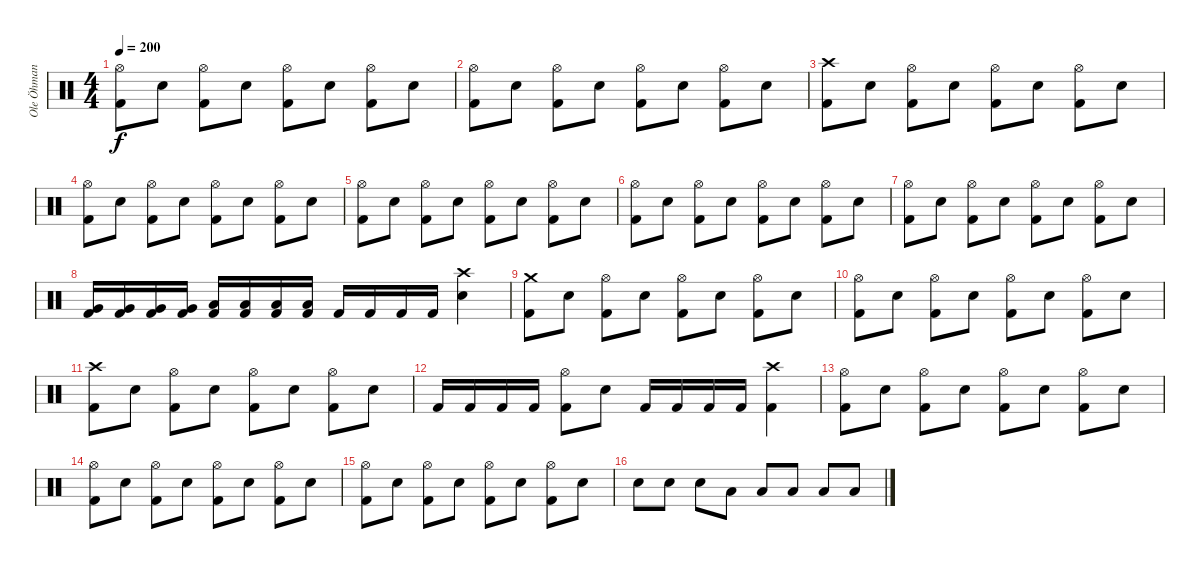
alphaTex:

\track ("Ole Öhman" "Ole Öhman") {instrument percussion}
\staff {score}
\articulation defaults
\ts (4 4)
\tempo 200
\clef neutral
\ks c
("Hi-Hat (open)" "Kick (hit) 2").8{dy f} "Snare (hit) 2".8 ("Hi-Hat (open)" "Kick (hit) 2").8 "Snare (hit) 2".8 ("Hi-Hat (open)" "Kick (hit) 2").8 "Snare (hit) 2".8 ("Hi-Hat (open)" "Kick (hit) 2").8 "Snare (hit) 2".8 |
("Hi-Hat (open)" "Kick (hit) 2").8 "Snare (hit) 2".8 ("Hi-Hat (open)" "Kick (hit) 2").8 "Snare (hit) 2".8 ("Hi-Hat (open)" "Kick (hit) 2").8 "Snare (hit) 2".8 ("Hi-Hat (open)" "Kick (hit) 2").8 "Snare (hit) 2".8 |
("Crash high (hit)" "Kick (hit) 2").8 "Snare (hit) 2".8 ("Hi-Hat (open)" "Kick (hit) 2").8 "Snare (hit) 2".8 ("Hi-Hat (open)" "Kick (hit) 2").8 "Snare (hit) 2".8 ("Hi-Hat (open)" "Kick (hit) 2").8 "Snare (hit) 2".8 |
("Hi-Hat (open)" "Kick (hit) 2").8 "Snare (hit) 2".8 ("Hi-Hat (open)" "Kick (hit) 2").8 "Snare (hit) 2".8 ("Hi-Hat (open)" "Kick (hit) 2").8 "Snare (hit) 2".8 ("Hi-Hat (open)" "Kick (hit) 2").8 "Snare (hit) 2".8 |
("Hi-Hat (open)" "Kick (hit) 2").8 "Snare (hit) 2".8 ("Hi-Hat (open)" "Kick (hit) 2").8 "Snare (hit) 2".8 ("Hi-Hat (open)" "Kick (hit) 2").8 "Snare (hit) 2".8 ("Hi-Hat (open)" "Kick (hit) 2").8 "Snare (hit) 2".8 |
("Hi-Hat (open)" "Kick (hit) 2").8 "Snare (hit) 2".8 ("Hi-Hat (open)" "Kick (hit) 2").8 "Snare (hit) 2".8 ("Hi-Hat (open)" "Kick (hit) 2").8 "Snare (hit) 2".8 ("Hi-Hat (open)" "Kick (hit) 2").8 "Snare (hit) 2".8 |
("Hi-Hat (open)" "Kick (hit) 2").8 "Snare (hit) 2".8 ("Hi-Hat (open)" "Kick (hit) 2").8 "Snare (hit) 2".8 ("Hi-Hat (open)" "Kick (hit) 2").8 "Snare (hit) 2".8 ("Hi-Hat (open)" "Kick (hit) 2").8 "Snare (hit) 2".8 |
("Very Low Tom (hit)" "Kick (hit) 2").16 ("Very Low Tom (hit)" "Kick (hit) 2").16 ("Very Low Tom (hit)" "Kick (hit) 2").16 ("Very Low Tom (hit)" "Kick (hit) 2").16 ("Low Floor Tom (hit)" "Kick (hit) 2").16 ("Low Floor Tom (hit)" "Kick (hit) 2").16 ("Low Floor Tom (hit)" "Kick (hit) 2").16 ("Low Floor Tom (hit)" "Kick (hit) 2").16 "Kick (hit) 2".16 "Kick (hit) 2".16 "Kick (hit) 2".16 "Kick (hit) 2".16 ("Snare (hit) 2" "Crash high (hit)").4 |
("Crash medium (hit)" "Kick (hit) 2").8 "Snare (hit) 2".8 ("Hi-Hat (open)" "Kick (hit) 2").8 "Snare (hit) 2".8 ("Hi-Hat (open)" "Kick (hit) 2").8 "Snare (hit) 2".8 ("Hi-Hat (open)" "Kick (hit) 2").8 "Snare (hit) 2".8 |
("Hi-Hat (open)" "Kick (hit) 2").8 "Snare (hit) 2".8 ("Hi-Hat (open)" "Kick (hit) 2").8 "Snare (hit) 2".8 ("Hi-Hat (open)" "Kick (hit) 2").8 "Snare (hit) 2".8 ("Hi-Hat (open)" "Kick (hit) 2").8 "Snare (hit) 2".8 |
("Crash high (hit)" "Kick (hit) 2").8 "Snare (hit) 2".8 ("Hi-Hat (open)" "Kick (hit) 2").8 "Snare (hit) 2".8 ("Hi-Hat (open)" "Kick (hit) 2").8 "Snare (hit) 2".8 ("Hi-Hat (open)" "Kick (hit) 2").8 "Snare (hit) 2".8 |
"Kick (hit) 2".16 "Kick (hit) 2".16 "Kick (hit) 2".16 "Kick (hit) 2".16 ("Hi-Hat (open)" "Kick (hit) 2").8 "Snare (hit) 2".8 "Kick (hit) 2".16 "Kick (hit) 2".16 "Kick (hit) 2".16 "Kick (hit) 2".16 ("Crash high (hit)" "Kick (hit) 2").4 |
("Hi-Hat (open)" "Kick (hit) 2").8 "Snare (hit) 2".8 ("Hi-Hat (open)" "Kick (hit) 2").8 "Snare (hit) 2".8 ("Hi-Hat (open)" "Kick (hit) 2").8 "Snare (hit) 2".8 ("Hi-Hat (open)" "Kick (hit) 2").8 "Snare (hit) 2".8 |
("Hi-Hat (open)" "Kick (hit) 2").8 "Snare (hit) 2".8 ("Hi-Hat (open)" "Kick (hit) 2").8 "Snare (hit) 2".8 ("Hi-Hat (open)" "Kick (hit) 2").8 "Snare (hit) 2".8 ("Hi-Hat (open)" "Kick (hit) 2").8 "Snare (hit) 2".8 |
("Hi-Hat (open)" "Kick (hit) 2").8 "Snare (hit) 2".8 ("Hi-Hat (open)" "Kick (hit) 2").8 "Snare (hit) 2".8 ("Hi-Hat (open)" "Kick (hit) 2").8 "Snare (hit) 2".8 ("Hi-Hat (open)" "Kick (hit) 2").8 "Snare (hit) 2".8 |
"Snare (hit) 2".8 "Snare (hit) 2".8 "Snare (hit) 2".8 "Low Tom (hit)".8 "Low Tom (hit)".8 "Low Tom (hit)".8 "Low Floor Tom (hit)".8 "Low Floor Tom (hit)".8
